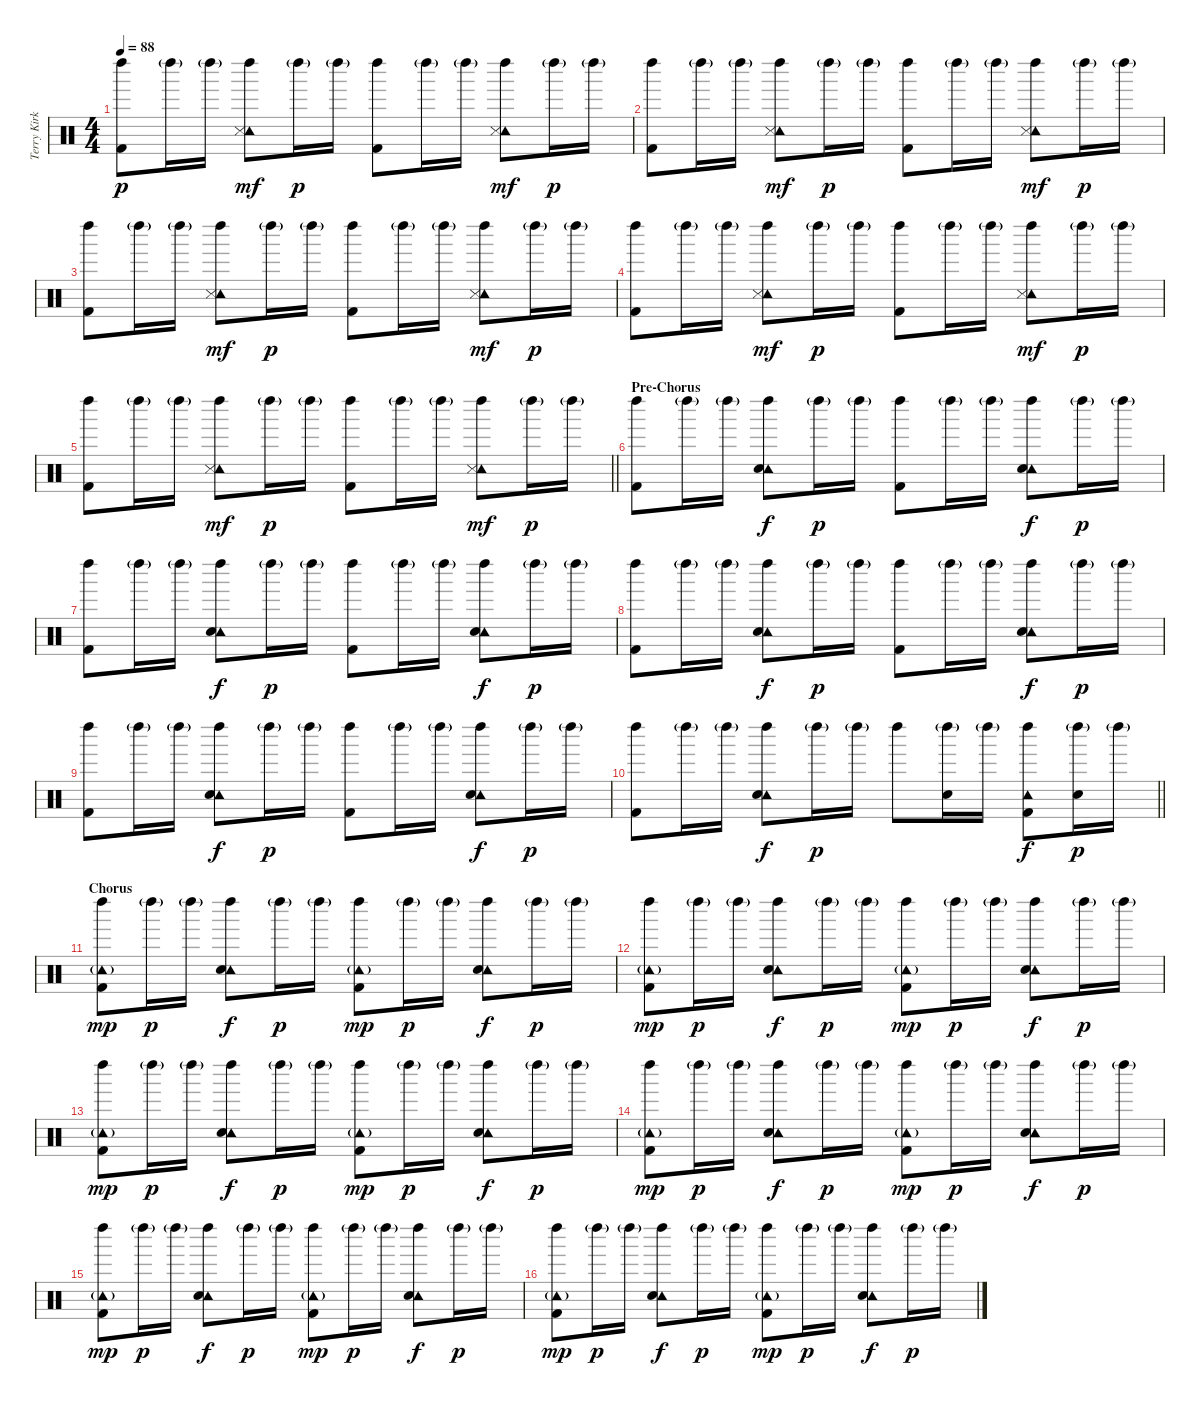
\track ("Terry Kirkbride " "Terry Kirk") {instrument percussion}
\staff {score}
\articulation defaults
\ts (4 4)
\tempo 88
\clef neutral
\ks c
("Left Maraca (hit)" "Kick (hit) 2").8{dy p} "Left Maraca (hit)"{g}.16 "Left Maraca (hit)"{g}.16 ("Left Maraca (hit)" "Tambourine (hit)" "Snare (side stick) 3").8{dy mf} "Left Maraca (hit)"{g}.16{dy p} "Left Maraca (hit)"{g}.16 ("Left Maraca (hit)" "Kick (hit) 2").8 "Left Maraca (hit)"{g}.16 "Left Maraca (hit)"{g}.16 ("Left Maraca (hit)" "Tambourine (hit)" "Snare (side stick) 3").8{dy mf} "Left Maraca (hit)"{g}.16{dy p} "Left Maraca (hit)"{g}.16 |
("Left Maraca (hit)" "Kick (hit) 2").8 "Left Maraca (hit)"{g}.16 "Left Maraca (hit)"{g}.16 ("Left Maraca (hit)" "Tambourine (hit)" "Snare (side stick) 3").8{dy mf} "Left Maraca (hit)"{g}.16{dy p} "Left Maraca (hit)"{g}.16 ("Left Maraca (hit)" "Kick (hit) 2").8 "Left Maraca (hit)"{g}.16 "Left Maraca (hit)"{g}.16 ("Left Maraca (hit)" "Tambourine (hit)" "Snare (side stick) 3").8{dy mf} "Left Maraca (hit)"{g}.16{dy p} "Left Maraca (hit)"{g}.16 |
("Left Maraca (hit)" "Kick (hit) 2").8 "Left Maraca (hit)"{g}.16 "Left Maraca (hit)"{g}.16 ("Left Maraca (hit)" "Tambourine (hit)" "Snare (side stick) 3").8{dy mf} "Left Maraca (hit)"{g}.16{dy p} "Left Maraca (hit)"{g}.16 ("Left Maraca (hit)" "Kick (hit) 2").8 "Left Maraca (hit)"{g}.16 "Left Maraca (hit)"{g}.16 ("Left Maraca (hit)" "Tambourine (hit)" "Snare (side stick) 3").8{dy mf} "Left Maraca (hit)"{g}.16{dy p} "Left Maraca (hit)"{g}.16 |
("Left Maraca (hit)" "Kick (hit) 2").8 "Left Maraca (hit)"{g}.16 "Left Maraca (hit)"{g}.16 ("Left Maraca (hit)" "Tambourine (hit)" "Snare (side stick) 3").8{dy mf} "Left Maraca (hit)"{g}.16{dy p} "Left Maraca (hit)"{g}.16 ("Left Maraca (hit)" "Kick (hit) 2").8 "Left Maraca (hit)"{g}.16 "Left Maraca (hit)"{g}.16 ("Left Maraca (hit)" "Tambourine (hit)" "Snare (side stick) 3").8{dy mf} "Left Maraca (hit)"{g}.16{dy p} "Left Maraca (hit)"{g}.16 |
\barLineRight lightlight
("Left Maraca (hit)" "Kick (hit) 2").8 "Left Maraca (hit)"{g}.16 "Left Maraca (hit)"{g}.16 ("Left Maraca (hit)" "Tambourine (hit)" "Snare (side stick) 3").8{dy mf} "Left Maraca (hit)"{g}.16{dy p} "Left Maraca (hit)"{g}.16 ("Left Maraca (hit)" "Kick (hit) 2").8 "Left Maraca (hit)"{g}.16 "Left Maraca (hit)"{g}.16 ("Left Maraca (hit)" "Tambourine (hit)" "Snare (side stick) 3").8{dy mf} "Left Maraca (hit)"{g}.16{dy p} "Left Maraca (hit)"{g}.16 |
\section ("" "Pre-Chorus")
("Left Maraca (hit)" "Kick (hit) 2").8 "Left Maraca (hit)"{g}.16 "Left Maraca (hit)"{g}.16 ("Left Maraca (hit)" "Tambourine (hit)" "Snare (hit) 2").8{dy f} "Left Maraca (hit)"{g}.16{dy p} "Left Maraca (hit)"{g}.16 ("Left Maraca (hit)" "Kick (hit) 2").8 "Left Maraca (hit)"{g}.16 "Left Maraca (hit)"{g}.16 ("Left Maraca (hit)" "Tambourine (hit)" "Snare (hit) 2").8{dy f} "Left Maraca (hit)"{g}.16{dy p} "Left Maraca (hit)"{g}.16 |
("Left Maraca (hit)" "Kick (hit) 2").8 "Left Maraca (hit)"{g}.16 "Left Maraca (hit)"{g}.16 ("Left Maraca (hit)" "Tambourine (hit)" "Snare (hit) 2").8{dy f} "Left Maraca (hit)"{g}.16{dy p} "Left Maraca (hit)"{g}.16 ("Left Maraca (hit)" "Kick (hit) 2").8 "Left Maraca (hit)"{g}.16 "Left Maraca (hit)"{g}.16 ("Left Maraca (hit)" "Tambourine (hit)" "Snare (hit) 2").8{dy f} "Left Maraca (hit)"{g}.16{dy p} "Left Maraca (hit)"{g}.16 |
("Left Maraca (hit)" "Kick (hit) 2").8 "Left Maraca (hit)"{g}.16 "Left Maraca (hit)"{g}.16 ("Left Maraca (hit)" "Tambourine (hit)" "Snare (hit) 2").8{dy f} "Left Maraca (hit)"{g}.16{dy p} "Left Maraca (hit)"{g}.16 ("Left Maraca (hit)" "Kick (hit) 2").8 "Left Maraca (hit)"{g}.16 "Left Maraca (hit)"{g}.16 ("Left Maraca (hit)" "Tambourine (hit)" "Snare (hit) 2").8{dy f} "Left Maraca (hit)"{g}.16{dy p} "Left Maraca (hit)"{g}.16 |
("Left Maraca (hit)" "Kick (hit) 2").8 "Left Maraca (hit)"{g}.16 "Left Maraca (hit)"{g}.16 ("Left Maraca (hit)" "Tambourine (hit)" "Snare (hit) 2").8{dy f} "Left Maraca (hit)"{g}.16{dy p} "Left Maraca (hit)"{g}.16 ("Left Maraca (hit)" "Kick (hit) 2").8 "Left Maraca (hit)"{g}.16 "Left Maraca (hit)"{g}.16 ("Left Maraca (hit)" "Tambourine (hit)" "Snare (hit) 2").8{dy f} "Left Maraca (hit)"{g}.16{dy p} "Left Maraca (hit)"{g}.16 |
\barLineRight lightlight
("Left Maraca (hit)" "Kick (hit) 2").8 "Left Maraca (hit)"{g}.16 "Left Maraca (hit)"{g}.16 ("Left Maraca (hit)" "Tambourine (hit)" "Snare (hit) 2").8{dy f} "Left Maraca (hit)"{g}.16{dy p} "Left Maraca (hit)"{g}.16 "Left Maraca (hit)".8 ("Left Maraca (hit)"{g} "Snare (hit) 2").16 "Left Maraca (hit)"{g}.16 ("Left Maraca (hit)" "Tambourine (hit)" "Kick (hit) 2").8{dy f} ("Left Maraca (hit)"{g} "Snare (hit) 2").16{dy p} "Left Maraca (hit)"{g}.16 |
\section ("" "Chorus")
("Left Maraca (hit)" "Tambourine (hit)"{g} "Kick (hit) 2").8{dy mp} "Left Maraca (hit)"{g}.16{dy p} "Left Maraca (hit)"{g}.16 ("Left Maraca (hit)" "Tambourine (hit)" "Snare (hit) 2").8{dy f} "Left Maraca (hit)"{g}.16{dy p} "Left Maraca (hit)"{g}.16 ("Left Maraca (hit)" "Tambourine (hit)"{g} "Kick (hit) 2").8{dy mp} "Left Maraca (hit)"{g}.16{dy p} "Left Maraca (hit)"{g}.16 ("Left Maraca (hit)" "Tambourine (hit)" "Snare (hit) 2").8{dy f} "Left Maraca (hit)"{g}.16{dy p} "Left Maraca (hit)"{g}.16 |
("Left Maraca (hit)" "Tambourine (hit)"{g} "Kick (hit) 2").8{dy mp} "Left Maraca (hit)"{g}.16{dy p} "Left Maraca (hit)"{g}.16 ("Left Maraca (hit)" "Tambourine (hit)" "Snare (hit) 2").8{dy f} "Left Maraca (hit)"{g}.16{dy p} "Left Maraca (hit)"{g}.16 ("Left Maraca (hit)" "Tambourine (hit)"{g} "Kick (hit) 2").8{dy mp} "Left Maraca (hit)"{g}.16{dy p} "Left Maraca (hit)"{g}.16 ("Left Maraca (hit)" "Tambourine (hit)" "Snare (hit) 2").8{dy f} "Left Maraca (hit)"{g}.16{dy p} "Left Maraca (hit)"{g}.16 |
("Left Maraca (hit)" "Tambourine (hit)"{g} "Kick (hit) 2").8{dy mp} "Left Maraca (hit)"{g}.16{dy p} "Left Maraca (hit)"{g}.16 ("Left Maraca (hit)" "Tambourine (hit)" "Snare (hit) 2").8{dy f} "Left Maraca (hit)"{g}.16{dy p} "Left Maraca (hit)"{g}.16 ("Left Maraca (hit)" "Tambourine (hit)"{g} "Kick (hit) 2").8{dy mp} "Left Maraca (hit)"{g}.16{dy p} "Left Maraca (hit)"{g}.16 ("Left Maraca (hit)" "Tambourine (hit)" "Snare (hit) 2").8{dy f} "Left Maraca (hit)"{g}.16{dy p} "Left Maraca (hit)"{g}.16 |
("Left Maraca (hit)" "Tambourine (hit)"{g} "Kick (hit) 2").8{dy mp} "Left Maraca (hit)"{g}.16{dy p} "Left Maraca (hit)"{g}.16 ("Left Maraca (hit)" "Tambourine (hit)" "Snare (hit) 2").8{dy f} "Left Maraca (hit)"{g}.16{dy p} "Left Maraca (hit)"{g}.16 ("Left Maraca (hit)" "Tambourine (hit)"{g} "Kick (hit) 2").8{dy mp} "Left Maraca (hit)"{g}.16{dy p} "Left Maraca (hit)"{g}.16 ("Left Maraca (hit)" "Tambourine (hit)" "Snare (hit) 2").8{dy f} "Left Maraca (hit)"{g}.16{dy p} "Left Maraca (hit)"{g}.16 |
("Left Maraca (hit)" "Tambourine (hit)"{g} "Kick (hit) 2").8{dy mp} "Left Maraca (hit)"{g}.16{dy p} "Left Maraca (hit)"{g}.16 ("Left Maraca (hit)" "Tambourine (hit)" "Snare (hit) 2").8{dy f} "Left Maraca (hit)"{g}.16{dy p} "Left Maraca (hit)"{g}.16 ("Left Maraca (hit)" "Tambourine (hit)"{g} "Kick (hit) 2").8{dy mp} "Left Maraca (hit)"{g}.16{dy p} "Left Maraca (hit)"{g}.16 ("Left Maraca (hit)" "Tambourine (hit)" "Snare (hit) 2").8{dy f} "Left Maraca (hit)"{g}.16{dy p} "Left Maraca (hit)"{g}.16 |
("Left Maraca (hit)" "Tambourine (hit)"{g} "Kick (hit) 2").8{dy mp} "Left Maraca (hit)"{g}.16{dy p} "Left Maraca (hit)"{g}.16 ("Left Maraca (hit)" "Tambourine (hit)" "Snare (hit) 2").8{dy f} "Left Maraca (hit)"{g}.16{dy p} "Left Maraca (hit)"{g}.16 ("Left Maraca (hit)" "Tambourine (hit)"{g} "Kick (hit) 2").8{dy mp} "Left Maraca (hit)"{g}.16{dy p} "Left Maraca (hit)"{g}.16 ("Left Maraca (hit)" "Tambourine (hit)" "Snare (hit) 2").8{dy f} "Left Maraca (hit)"{g}.16{dy p} "Left Maraca (hit)"{g}.16
